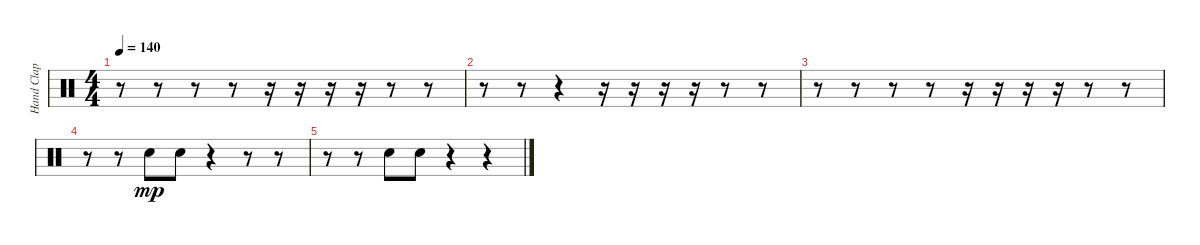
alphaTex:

\track ("Hand Clap" "Hand Clap") {instrument percussion}
\staff {score}
\articulation defaults
\ts (4 4)
\tempo 140
\clef neutral
\ks c
r.8{dy mp} r.8 r.8 r.8 r.16 r.16 r.16 r.16 r.8 r.8 |
r.8 r.8 r.4 r.16 r.16 r.16 r.16 r.8 r.8 |
r.8 r.8 r.8 r.8 r.16 r.16 r.16 r.16 r.8 r.8 |
r.8 r.8 "Hand Clap (hit)".8 "Hand Clap (hit)".8 r.4 r.8 r.8 |
r.8 r.8 "Hand Clap (hit)".8 "Hand Clap (hit)".8 r.4 r.4
